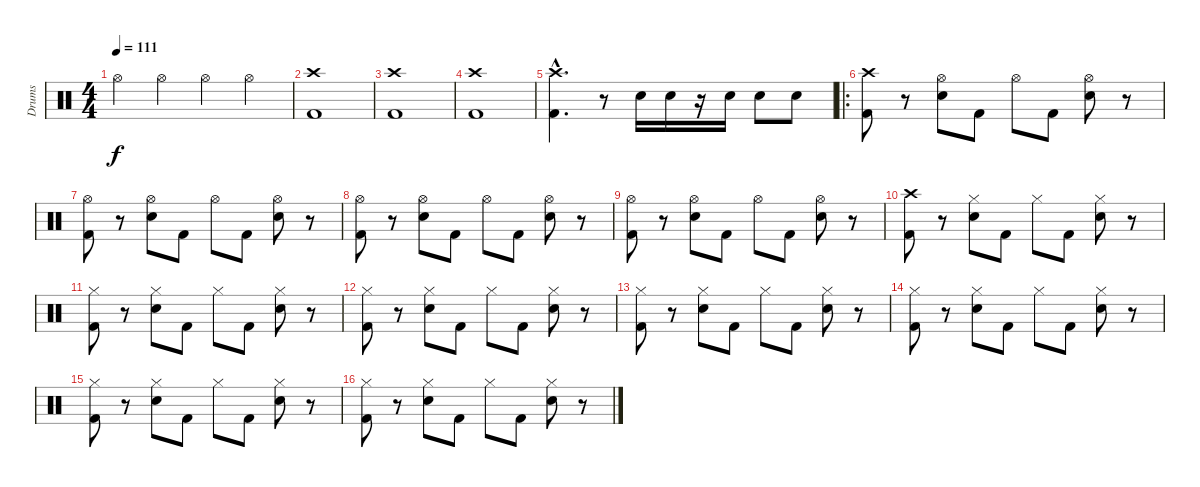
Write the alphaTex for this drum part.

\track ("Drums" "Drums") {instrument percussion}
\staff {score}
\articulation defaults
\ts (4 4)
\tempo 111
\clef neutral
\ks c "Hi-Hat (open)".4{dy f} "Hi-Hat (open)".4 "Hi-Hat (open)".4 "Hi-Hat (open)".4
|
("Crash high (hit)" "Kick (hit) 2").1 |
("Crash high (hit)" "Kick (hit) 2").1 |
("Crash high (hit)" "Kick (hit) 2").1 |
("Crash high (hit)"{hac} "Kick (hit) 2"{hac}).4{d} r.8 "Snare (hit) 2".16 "Snare (hit) 2".16 r.16 "Snare (hit) 2".16 "Snare (hit) 2".8 "Snare (hit) 2".8 |
\ro
("Crash high (hit)" "Kick (hit) 2").8 r.8 ("Hi-Hat (open)" "Snare (hit) 2").8 "Kick (hit) 2".8 "Hi-Hat (open)".8 "Kick (hit) 2".8 ("Hi-Hat (open)" "Snare (hit) 2").8 r.8 |
("Hi-Hat (open)" "Kick (hit) 2").8 r.8 ("Hi-Hat (open)" "Snare (hit) 2").8 "Kick (hit) 2".8 "Hi-Hat (open)".8 "Kick (hit) 2".8 ("Hi-Hat (open)" "Snare (hit) 2").8 r.8 |
("Hi-Hat (open)" "Kick (hit) 2").8 r.8 ("Hi-Hat (open)" "Snare (hit) 2").8 "Kick (hit) 2".8 "Hi-Hat (open)".8 "Kick (hit) 2".8 ("Hi-Hat (open)" "Snare (hit) 2").8 r.8 |
("Hi-Hat (open)" "Kick (hit) 2").8 r.8 ("Hi-Hat (open)" "Snare (hit) 2").8 "Kick (hit) 2".8 "Hi-Hat (open)".8 "Kick (hit) 2".8 ("Hi-Hat (open)" "Snare (hit) 2").8 r.8 |
("Crash high (hit)" "Kick (hit) 2").8 r.8 ("Hi-Hat (closed)" "Snare (hit) 2").8 "Kick (hit) 2".8 "Hi-Hat (closed)".8 "Kick (hit) 2".8 ("Hi-Hat (closed)" "Snare (hit) 2").8 r.8 |
("Hi-Hat (closed)" "Kick (hit) 2").8 r.8 ("Hi-Hat (closed)" "Snare (hit) 2").8 "Kick (hit) 2".8 "Hi-Hat (closed)".8 "Kick (hit) 2".8 ("Hi-Hat (closed)" "Snare (hit) 2").8 r.8 |
("Hi-Hat (closed)" "Kick (hit) 2").8 r.8 ("Hi-Hat (closed)" "Snare (hit) 2").8 "Kick (hit) 2".8 "Hi-Hat (closed)".8 "Kick (hit) 2".8 ("Hi-Hat (closed)" "Snare (hit) 2").8 r.8 |
("Hi-Hat (closed)" "Kick (hit) 2").8 r.8 ("Hi-Hat (closed)" "Snare (hit) 2").8 "Kick (hit) 2".8 "Hi-Hat (closed)".8 "Kick (hit) 2".8 ("Hi-Hat (closed)" "Snare (hit) 2").8 r.8 |
("Hi-Hat (closed)" "Kick (hit) 2").8 r.8 ("Hi-Hat (closed)" "Snare (hit) 2").8 "Kick (hit) 2".8 "Hi-Hat (closed)".8 "Kick (hit) 2".8 ("Hi-Hat (closed)" "Snare (hit) 2").8 r.8 |
("Hi-Hat (closed)" "Kick (hit) 2").8 r.8 ("Hi-Hat (closed)" "Snare (hit) 2").8 "Kick (hit) 2".8 "Hi-Hat (closed)".8 "Kick (hit) 2".8 ("Hi-Hat (closed)" "Snare (hit) 2").8 r.8 |
("Hi-Hat (closed)" "Kick (hit) 2").8 r.8 ("Hi-Hat (closed)" "Snare (hit) 2").8 "Kick (hit) 2".8 "Hi-Hat (closed)".8 "Kick (hit) 2".8 ("Hi-Hat (closed)" "Snare (hit) 2").8 r.8
